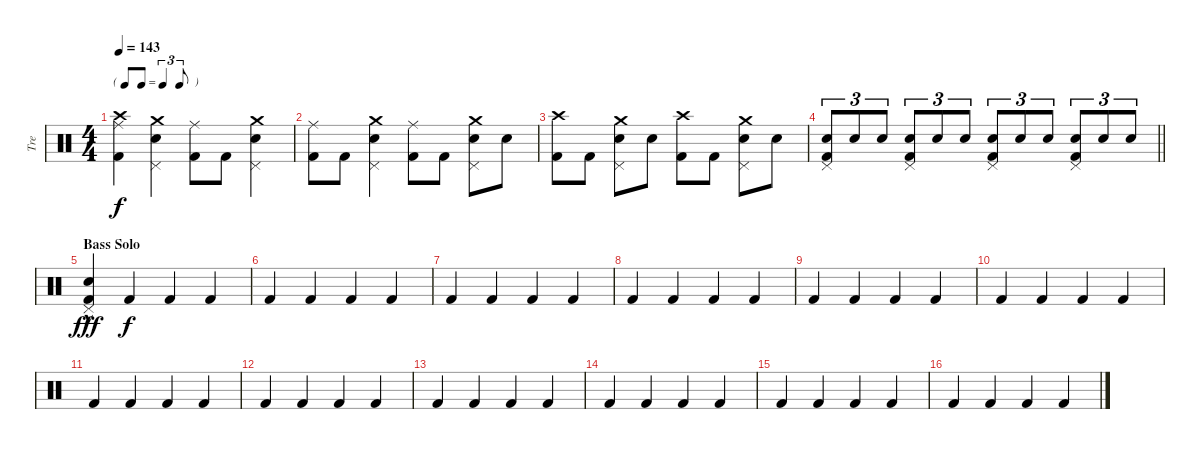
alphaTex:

\track ("Tre" "Tre") {instrument percussion}
\staff {score}
\articulation defaults
\ts (4 4)
\tf triplet8th
\tempo 143
\clef neutral
\ks c
("Crash high (hit)" "Ride (middle)" "Kick (hit) 2").4{dy f} ("Crash medium (hit)" "Snare (hit) 2" "Pedal Hi-Hat (hit)").4 ("Ride (middle)" "Kick (hit) 2").8 "Kick (hit) 2".8 ("Crash medium (hit)" "Snare (hit) 2" "Pedal Hi-Hat (hit)").4 |
("Ride (middle)" "Kick (hit) 2").8 "Kick (hit) 2".8 ("Crash medium (hit)" "Snare (hit) 2" "Pedal Hi-Hat (hit)").4 ("Ride (middle)" "Kick (hit) 2").8 "Kick (hit) 2".8 ("Crash medium (hit)" "Snare (hit) 2" "Pedal Hi-Hat (hit)").8 "Snare (hit) 2".8 |
("Crash high (hit)" "Kick (hit) 2").8 "Kick (hit) 2".8 ("Crash medium (hit)" "Snare (hit) 2" "Pedal Hi-Hat (hit)").8 "Snare (hit) 2".8 ("Crash high (hit)" "Kick (hit) 2").8 "Kick (hit) 2".8 ("Crash medium (hit)" "Snare (hit) 2" "Pedal Hi-Hat (hit)").8 "Snare (hit) 2".8 |
\barLineRight lightlight
("Snare (hit) 2" "Pedal Hi-Hat (hit)" "Kick (hit) 2").8{tu (3 2)} "Snare (hit) 2".8{tu (3 2)} "Snare (hit) 2".8{tu (3 2)} ("Snare (hit) 2" "Pedal Hi-Hat (hit)" "Kick (hit) 2").8{tu (3 2)} "Snare (hit) 2".8{tu (3 2)} "Snare (hit) 2".8{tu (3 2)} ("Snare (hit) 2" "Pedal Hi-Hat (hit)" "Kick (hit) 2").8{tu (3 2)} "Snare (hit) 2".8{tu (3 2)} "Snare (hit) 2".8{tu (3 2)} ("Snare (hit) 2" "Pedal Hi-Hat (hit)" "Kick (hit) 2").8{tu (3 2)} "Snare (hit) 2".8{tu (3 2)} "Snare (hit) 2".8{tu (3 2)} |
\section ("" "Bass Solo")
("Snare (hit) 2"{hac} "Pedal Hi-Hat (hit)"{hac} "Kick (hit) 2"{hac}).4{dy fff} "Kick (hit) 2".4{dy f} "Kick (hit) 2".4 "Kick (hit) 2".4 |
"Kick (hit) 2".4 "Kick (hit) 2".4 "Kick (hit) 2".4 "Kick (hit) 2".4 |
"Kick (hit) 2".4 "Kick (hit) 2".4 "Kick (hit) 2".4 "Kick (hit) 2".4 |
"Kick (hit) 2".4 "Kick (hit) 2".4 "Kick (hit) 2".4 "Kick (hit) 2".4 |
"Kick (hit) 2".4 "Kick (hit) 2".4 "Kick (hit) 2".4 "Kick (hit) 2".4 |
"Kick (hit) 2".4 "Kick (hit) 2".4 "Kick (hit) 2".4 "Kick (hit) 2".4 |
"Kick (hit) 2".4 "Kick (hit) 2".4 "Kick (hit) 2".4 "Kick (hit) 2".4 |
"Kick (hit) 2".4 "Kick (hit) 2".4 "Kick (hit) 2".4 "Kick (hit) 2".4 |
"Kick (hit) 2".4 "Kick (hit) 2".4 "Kick (hit) 2".4 "Kick (hit) 2".4 |
"Kick (hit) 2".4 "Kick (hit) 2".4 "Kick (hit) 2".4 "Kick (hit) 2".4 |
"Kick (hit) 2".4 "Kick (hit) 2".4 "Kick (hit) 2".4 "Kick (hit) 2".4 |
"Kick (hit) 2".4 "Kick (hit) 2".4 "Kick (hit) 2".4 "Kick (hit) 2".4
